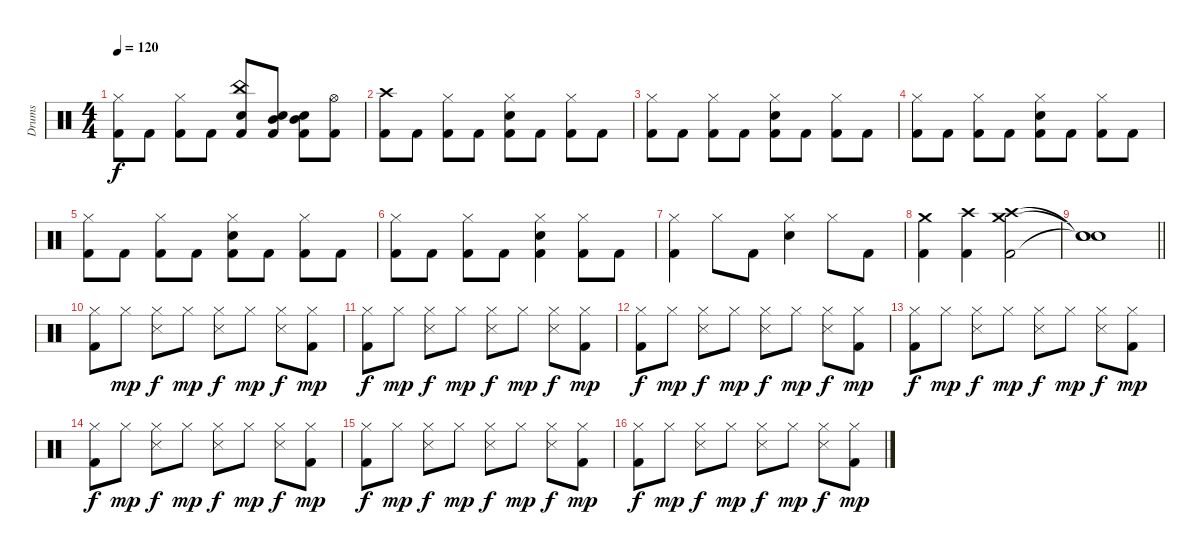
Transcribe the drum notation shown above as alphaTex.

\track ("Drums" "Drums") {instrument percussion}
\staff {score}
\articulation defaults
\ts (4 4)
\tempo 120
\clef neutral
\ks c
("Hi-Hat (closed)" "Kick (hit) 2").8{dy f} "Kick (hit) 2".8 ("Hi-Hat (closed)" "Kick (hit) 2").8 "Kick (hit) 2".8 ("China (hit)" "Electric Snare (hit)" "Kick (hit) 2").8 ("Mid Tom (hit)" "Electric Snare (hit)" "Kick (hit) 2").8 ("Mid Tom (hit)" "Electric Snare (hit)" "Kick (hit) 2").8 ("Hi-Hat (open)" "Kick (hit) 2").8 |
("Crash high (hit)" "Kick (hit) 2").8 "Kick (hit) 2".8 ("Hi-Hat (closed)" "Kick (hit) 2").8 "Kick (hit) 2".8 ("Hi-Hat (closed)" "Electric Snare (hit)" "Kick (hit) 2").8 "Kick (hit) 2".8 ("Hi-Hat (closed)" "Kick (hit) 2").8 "Kick (hit) 2".8 |
("Hi-Hat (closed)" "Kick (hit) 2").8 "Kick (hit) 2".8 ("Hi-Hat (closed)" "Kick (hit) 2").8 "Kick (hit) 2".8 ("Hi-Hat (closed)" "Electric Snare (hit)" "Kick (hit) 2").8 "Kick (hit) 2".8 ("Hi-Hat (closed)" "Kick (hit) 2").8 "Kick (hit) 2".8 |
("Hi-Hat (closed)" "Kick (hit) 2").8 "Kick (hit) 2".8 ("Hi-Hat (closed)" "Kick (hit) 2").8 "Kick (hit) 2".8 ("Hi-Hat (closed)" "Electric Snare (hit)" "Kick (hit) 2").8 "Kick (hit) 2".8 ("Hi-Hat (closed)" "Kick (hit) 2").8 "Kick (hit) 2".8 |
("Hi-Hat (closed)" "Kick (hit) 2").8 "Kick (hit) 2".8 ("Hi-Hat (closed)" "Kick (hit) 2").8 "Kick (hit) 2".8 ("Hi-Hat (closed)" "Electric Snare (hit)" "Kick (hit) 2").8 "Kick (hit) 2".8 ("Hi-Hat (closed)" "Kick (hit) 2").8 "Kick (hit) 2".8 |
("Hi-Hat (closed)" "Kick (hit) 2").8 "Kick (hit) 2".8 ("Hi-Hat (closed)" "Kick (hit) 2").8 "Kick (hit) 2".8 ("Hi-Hat (closed)" "Electric Snare (hit)" "Kick (hit) 2").4 ("Hi-Hat (closed)" "Kick (hit) 2").8 "Kick (hit) 2".8 |
("Hi-Hat (closed)" "Kick (hit) 2").4 "Hi-Hat (closed)".8 "Kick (hit) 2".8 ("Hi-Hat (closed)" "Electric Snare (hit)").4 "Hi-Hat (closed)".8 "Kick (hit) 2".8 |
("Crash medium (hit)" "Kick (hit) 2").4 ("Crash high (hit)" "Kick (hit) 2").4 ("Crash high (hit)" "Crash medium (hit)" "Kick (hit) 2").2 |
\barLineRight lightlight
("Snare (hit)"{t} "Snare (hit)"{t} "Snare (hit)"{t}).1 |
("Hi-Hat (closed)" "Kick (hit) 2").8 "Hi-Hat (closed)".8{dy mp} ("Hi-Hat (closed)" "Snare (side stick) 3").8{dy f} "Hi-Hat (closed)".8{dy mp} ("Hi-Hat (closed)" "Snare (side stick) 3").8{dy f} "Hi-Hat (closed)".8{dy mp} ("Hi-Hat (closed)" "Snare (side stick) 3").8{dy f} ("Hi-Hat (closed)" "Kick (hit) 2").8{dy mp} |
("Hi-Hat (closed)" "Kick (hit) 2").8{dy f} "Hi-Hat (closed)".8{dy mp} ("Hi-Hat (closed)" "Snare (side stick) 3").8{dy f} "Hi-Hat (closed)".8{dy mp} ("Hi-Hat (closed)" "Snare (side stick) 3").8{dy f} "Hi-Hat (closed)".8{dy mp} ("Hi-Hat (closed)" "Snare (side stick) 3").8{dy f} ("Hi-Hat (closed)" "Kick (hit) 2").8{dy mp} |
("Hi-Hat (closed)" "Kick (hit) 2").8{dy f} "Hi-Hat (closed)".8{dy mp} ("Hi-Hat (closed)" "Snare (side stick) 3").8{dy f} "Hi-Hat (closed)".8{dy mp} ("Hi-Hat (closed)" "Snare (side stick) 3").8{dy f} "Hi-Hat (closed)".8{dy mp} ("Hi-Hat (closed)" "Snare (side stick) 3").8{dy f} ("Hi-Hat (closed)" "Kick (hit) 2").8{dy mp} |
("Hi-Hat (closed)" "Kick (hit) 2").8{dy f} "Hi-Hat (closed)".8{dy mp} ("Hi-Hat (closed)" "Snare (side stick) 3").8{dy f} "Hi-Hat (closed)".8{dy mp} ("Hi-Hat (closed)" "Snare (side stick) 3").8{dy f} "Hi-Hat (closed)".8{dy mp} ("Hi-Hat (closed)" "Snare (side stick) 3").8{dy f} ("Hi-Hat (closed)" "Kick (hit) 2").8{dy mp} |
("Hi-Hat (closed)" "Kick (hit) 2").8{dy f} "Hi-Hat (closed)".8{dy mp} ("Hi-Hat (closed)" "Snare (side stick) 3").8{dy f} "Hi-Hat (closed)".8{dy mp} ("Hi-Hat (closed)" "Snare (side stick) 3").8{dy f} "Hi-Hat (closed)".8{dy mp} ("Hi-Hat (closed)" "Snare (side stick) 3").8{dy f} ("Hi-Hat (closed)" "Kick (hit) 2").8{dy mp} |
("Hi-Hat (closed)" "Kick (hit) 2").8{dy f} "Hi-Hat (closed)".8{dy mp} ("Hi-Hat (closed)" "Snare (side stick) 3").8{dy f} "Hi-Hat (closed)".8{dy mp} ("Hi-Hat (closed)" "Snare (side stick) 3").8{dy f} "Hi-Hat (closed)".8{dy mp} ("Hi-Hat (closed)" "Snare (side stick) 3").8{dy f} ("Hi-Hat (closed)" "Kick (hit) 2").8{dy mp} |
("Hi-Hat (closed)" "Kick (hit) 2").8{dy f} "Hi-Hat (closed)".8{dy mp} ("Hi-Hat (closed)" "Snare (side stick) 3").8{dy f} "Hi-Hat (closed)".8{dy mp} ("Hi-Hat (closed)" "Snare (side stick) 3").8{dy f} "Hi-Hat (closed)".8{dy mp} ("Hi-Hat (closed)" "Snare (side stick) 3").8{dy f} ("Hi-Hat (closed)" "Kick (hit) 2").8{dy mp}
